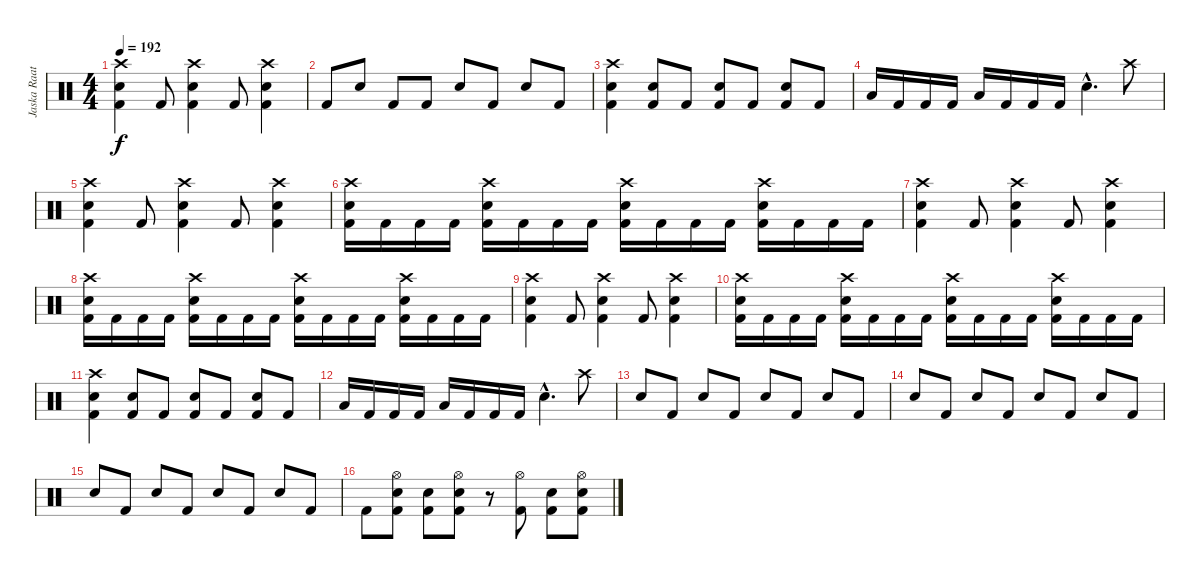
\track ("Jaska Raatikainen" "Jaska Raat") {instrument percussion}
\staff {score}
\articulation defaults
\ts (4 4)
\tempo 192
\clef neutral
\ks c
("Crash high (hit)" "Snare (hit) 2" "Kick (hit) 2").4{dy f} "Kick (hit) 2".8 ("Crash high (hit)" "Snare (hit) 2" "Kick (hit) 2").4 "Kick (hit) 2".8 ("Crash high (hit)" "Snare (hit) 2" "Kick (hit) 2").4 |
"Kick (hit) 2".8 "Snare (hit) 2".8 "Kick (hit) 2".8 "Kick (hit) 2".8 "Snare (hit) 2".8 "Kick (hit) 2".8 "Snare (hit) 2".8 "Kick (hit) 2".8 |
("Crash high (hit)" "Snare (hit) 2" "Kick (hit) 2").4 ("Snare (hit) 2" "Kick (hit) 2").8 "Kick (hit) 2".8 ("Snare (hit) 2" "Kick (hit) 2").8 "Kick (hit) 2".8 ("Snare (hit) 2" "Kick (hit) 2").8 "Kick (hit) 2".8 |
"Low Floor Tom (hit)".16 "Kick (hit) 2".16 "Kick (hit) 2".16 "Kick (hit) 2".16 "Low Floor Tom (hit)".16 "Kick (hit) 2".16 "Kick (hit) 2".16 "Kick (hit) 2".16 "Snare (hit) 2"{hac}.4{d} "Crash high (hit)".8 |
("Crash high (hit)" "Snare (hit) 2" "Kick (hit) 2").4 "Kick (hit) 2".8 ("Crash high (hit)" "Snare (hit) 2" "Kick (hit) 2").4 "Kick (hit) 2".8 ("Crash high (hit)" "Snare (hit) 2" "Kick (hit) 2").4 |
("Crash high (hit)" "Snare (hit) 2" "Kick (hit) 2").16 "Kick (hit) 2".16 "Kick (hit) 2".16 "Kick (hit) 2".16 ("Crash high (hit)" "Snare (hit) 2" "Kick (hit) 2").16 "Kick (hit) 2".16 "Kick (hit) 2".16 "Kick (hit) 2".16 ("Crash high (hit)" "Snare (hit) 2" "Kick (hit) 2").16 "Kick (hit) 2".16 "Kick (hit) 2".16 "Kick (hit) 2".16 ("Crash high (hit)" "Snare (hit) 2" "Kick (hit) 2").16 "Kick (hit) 2".16 "Kick (hit) 2".16 "Kick (hit) 2".16 |
("Crash high (hit)" "Snare (hit) 2" "Kick (hit) 2").4 "Kick (hit) 2".8 ("Crash high (hit)" "Snare (hit) 2" "Kick (hit) 2").4 "Kick (hit) 2".8 ("Crash high (hit)" "Snare (hit) 2" "Kick (hit) 2").4 |
("Crash high (hit)" "Snare (hit) 2" "Kick (hit) 2").16 "Kick (hit) 2".16 "Kick (hit) 2".16 "Kick (hit) 2".16 ("Crash high (hit)" "Snare (hit) 2" "Kick (hit) 2").16 "Kick (hit) 2".16 "Kick (hit) 2".16 "Kick (hit) 2".16 ("Crash high (hit)" "Snare (hit) 2" "Kick (hit) 2").16 "Kick (hit) 2".16 "Kick (hit) 2".16 "Kick (hit) 2".16 ("Crash high (hit)" "Snare (hit) 2" "Kick (hit) 2").16 "Kick (hit) 2".16 "Kick (hit) 2".16 "Kick (hit) 2".16 |
("Crash high (hit)" "Snare (hit) 2" "Kick (hit) 2").4 "Kick (hit) 2".8 ("Crash high (hit)" "Snare (hit) 2" "Kick (hit) 2").4 "Kick (hit) 2".8 ("Crash high (hit)" "Snare (hit) 2" "Kick (hit) 2").4 |
("Crash high (hit)" "Snare (hit) 2" "Kick (hit) 2").16 "Kick (hit) 2".16 "Kick (hit) 2".16 "Kick (hit) 2".16 ("Crash high (hit)" "Snare (hit) 2" "Kick (hit) 2").16 "Kick (hit) 2".16 "Kick (hit) 2".16 "Kick (hit) 2".16 ("Crash high (hit)" "Snare (hit) 2" "Kick (hit) 2").16 "Kick (hit) 2".16 "Kick (hit) 2".16 "Kick (hit) 2".16 ("Crash high (hit)" "Snare (hit) 2" "Kick (hit) 2").16 "Kick (hit) 2".16 "Kick (hit) 2".16 "Kick (hit) 2".16 |
("Crash high (hit)" "Snare (hit) 2" "Kick (hit) 2").4 ("Snare (hit) 2" "Kick (hit) 2").8 "Kick (hit) 2".8 ("Snare (hit) 2" "Kick (hit) 2").8 "Kick (hit) 2".8 ("Snare (hit) 2" "Kick (hit) 2").8 "Kick (hit) 2".8 |
"Low Floor Tom (hit)".16 "Kick (hit) 2".16 "Kick (hit) 2".16 "Kick (hit) 2".16 "Low Floor Tom (hit)".16 "Kick (hit) 2".16 "Kick (hit) 2".16 "Kick (hit) 2".16 "Snare (hit) 2"{hac}.4{d} "Crash high (hit)".8 |
"Snare (hit) 2".8 "Kick (hit) 2".8 "Snare (hit) 2".8 "Kick (hit) 2".8 "Snare (hit) 2".8 "Kick (hit) 2".8 "Snare (hit) 2".8 "Kick (hit) 2".8 |
"Snare (hit) 2".8 "Kick (hit) 2".8 "Snare (hit) 2".8 "Kick (hit) 2".8 "Snare (hit) 2".8 "Kick (hit) 2".8 "Snare (hit) 2".8 "Kick (hit) 2".8 |
"Snare (hit) 2".8 "Kick (hit) 2".8 "Snare (hit) 2".8 "Kick (hit) 2".8 "Snare (hit) 2".8 "Kick (hit) 2".8 "Snare (hit) 2".8 "Kick (hit) 2".8 |
"Kick (hit) 2".8 ("Hi-Hat (open)" "Snare (hit) 2" "Kick (hit) 2").8 ("Snare (hit) 2" "Kick (hit) 2").8 ("Hi-Hat (open)" "Snare (hit) 2" "Kick (hit) 2").8 r.8 ("Hi-Hat (open)" "Kick (hit) 2").8 ("Snare (hit) 2" "Kick (hit) 2").8 ("Hi-Hat (open)" "Snare (hit) 2" "Kick (hit) 2").8
